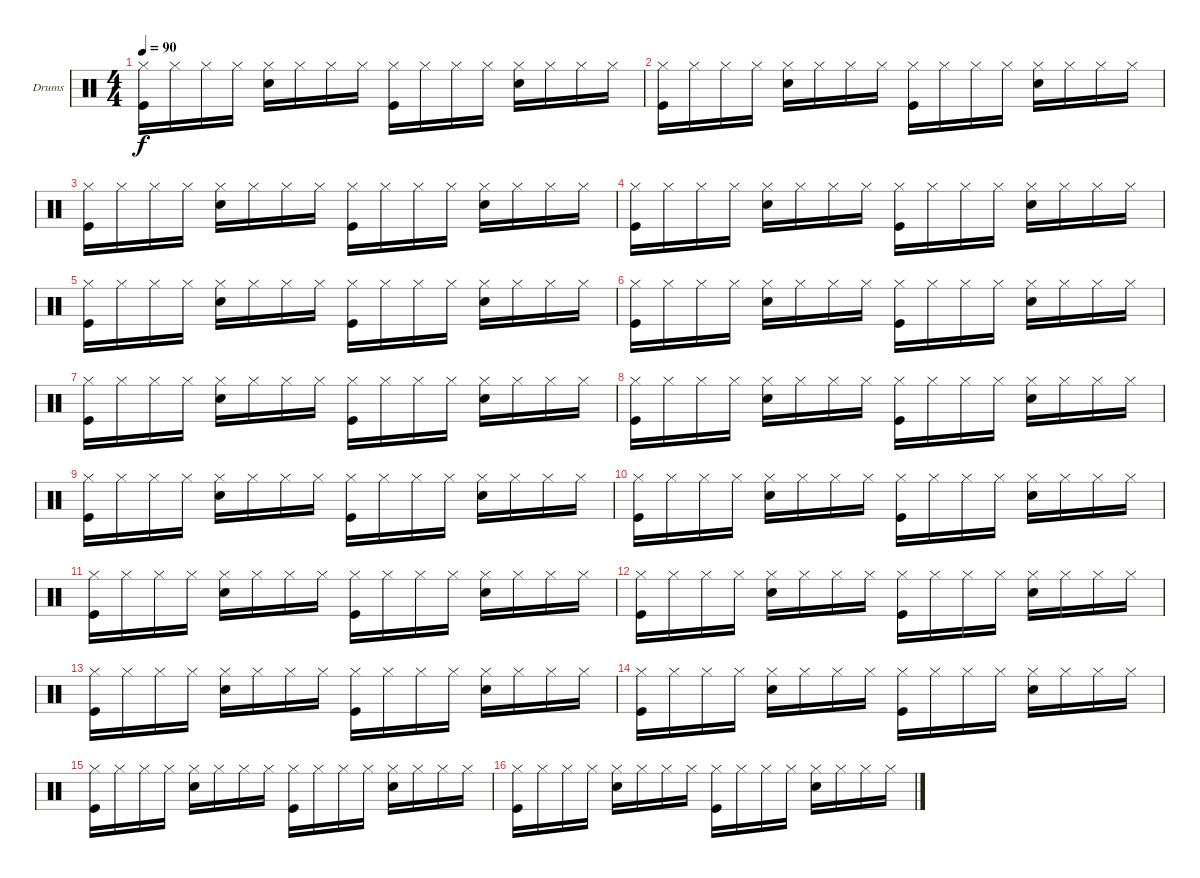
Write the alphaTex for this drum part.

\defaultSystemsLayout 4
\bracketExtendMode groupsimilarinstruments
\firstSystemTrackNameOrientation horizontal
\otherSystemsTrackNameOrientation horizontal
\track ("Drumkit" "Drums") {instrument percussion}
\staff {score}
\articulation defaults
\ts (4 4)
\tempo 90
\clef neutral
\scale
0.333333
\ks c
("Hi-Hat (closed)" "Kick (hit)").16{dy f} "Hi-Hat (closed)".16 "Hi-Hat (closed)".16 "Hi-Hat (closed)".16 ("Snare (hit) 2" "Hi-Hat (closed)").16 "Hi-Hat (closed)".16 "Hi-Hat (closed)".16 "Hi-Hat (closed)".16 ("Kick (hit)" "Hi-Hat (closed)").16 "Hi-Hat (closed)".16 "Hi-Hat (closed)".16 "Hi-Hat (closed)".16 ("Hi-Hat (closed)" "Snare (hit) 2").16 "Hi-Hat (closed)".16 "Hi-Hat (closed)".16 "Hi-Hat (closed)".16 |
\scale
0.333333 ("Kick (hit)" "Hi-Hat (closed)").16 "Hi-Hat (closed)".16 "Hi-Hat (closed)".16 "Hi-Hat (closed)".16 ("Snare (hit) 2" "Hi-Hat (closed)").16 "Hi-Hat (closed)".16 "Hi-Hat (closed)".16 "Hi-Hat (closed)".16 ("Hi-Hat (closed)" "Kick (hit)").16 "Hi-Hat (closed)".16 "Hi-Hat (closed)".16 "Hi-Hat (closed)".16 ("Snare (hit) 2" "Hi-Hat (closed)").16 "Hi-Hat (closed)".16 "Hi-Hat (closed)".16 "Hi-Hat (closed)".16 |
\scale
0.333333 ("Kick (hit)" "Hi-Hat (closed)").16 "Hi-Hat (closed)".16 "Hi-Hat (closed)".16 "Hi-Hat (closed)".16 ("Hi-Hat (closed)" "Snare (hit) 2").16 "Hi-Hat (closed)".16 "Hi-Hat (closed)".16 "Hi-Hat (closed)".16 ("Kick (hit)" "Hi-Hat (closed)").16 "Hi-Hat (closed)".16 "Hi-Hat (closed)".16 "Hi-Hat (closed)".16 ("Snare (hit) 2" "Hi-Hat (closed)").16 "Hi-Hat (closed)".16 "Hi-Hat (closed)".16 "Hi-Hat (closed)".16 |
\scale
0.333333 ("Hi-Hat (closed)" "Kick (hit)").16 "Hi-Hat (closed)".16 "Hi-Hat (closed)".16 "Hi-Hat (closed)".16 ("Snare (hit) 2" "Hi-Hat (closed)").16 "Hi-Hat (closed)".16 "Hi-Hat (closed)".16 "Hi-Hat (closed)".16 ("Kick (hit)" "Hi-Hat (closed)").16 "Hi-Hat (closed)".16 "Hi-Hat (closed)".16 "Hi-Hat (closed)".16 ("Hi-Hat (closed)" "Snare (hit) 2").16 "Hi-Hat (closed)".16 "Hi-Hat (closed)".16 "Hi-Hat (closed)".16 |
\scale
0.333333 ("Kick (hit)" "Hi-Hat (closed)").16 "Hi-Hat (closed)".16 "Hi-Hat (closed)".16 "Hi-Hat (closed)".16 ("Snare (hit) 2" "Hi-Hat (closed)").16 "Hi-Hat (closed)".16 "Hi-Hat (closed)".16 "Hi-Hat (closed)".16 ("Hi-Hat (closed)" "Kick (hit)").16 "Hi-Hat (closed)".16 "Hi-Hat (closed)".16 "Hi-Hat (closed)".16 ("Snare (hit) 2" "Hi-Hat (closed)").16 "Hi-Hat (closed)".16 "Hi-Hat (closed)".16 "Hi-Hat (closed)".16 |
\scale
0.333333 ("Kick (hit)" "Hi-Hat (closed)").16 "Hi-Hat (closed)".16 "Hi-Hat (closed)".16 "Hi-Hat (closed)".16 ("Hi-Hat (closed)" "Snare (hit) 2").16 "Hi-Hat (closed)".16 "Hi-Hat (closed)".16 "Hi-Hat (closed)".16 ("Kick (hit)" "Hi-Hat (closed)").16 "Hi-Hat (closed)".16 "Hi-Hat (closed)".16 "Hi-Hat (closed)".16 ("Snare (hit) 2" "Hi-Hat (closed)").16 "Hi-Hat (closed)".16 "Hi-Hat (closed)".16 "Hi-Hat (closed)".16 |
\scale
0.333333 ("Hi-Hat (closed)" "Kick (hit)").16 "Hi-Hat (closed)".16 "Hi-Hat (closed)".16 "Hi-Hat (closed)".16 ("Snare (hit) 2" "Hi-Hat (closed)").16 "Hi-Hat (closed)".16 "Hi-Hat (closed)".16 "Hi-Hat (closed)".16 ("Kick (hit)" "Hi-Hat (closed)").16 "Hi-Hat (closed)".16 "Hi-Hat (closed)".16 "Hi-Hat (closed)".16 ("Hi-Hat (closed)" "Snare (hit) 2").16 "Hi-Hat (closed)".16 "Hi-Hat (closed)".16 "Hi-Hat (closed)".16 |
\scale
0.333333 ("Kick (hit)" "Hi-Hat (closed)").16 "Hi-Hat (closed)".16 "Hi-Hat (closed)".16 "Hi-Hat (closed)".16 ("Snare (hit) 2" "Hi-Hat (closed)").16 "Hi-Hat (closed)".16 "Hi-Hat (closed)".16 "Hi-Hat (closed)".16 ("Hi-Hat (closed)" "Kick (hit)").16 "Hi-Hat (closed)".16 "Hi-Hat (closed)".16 "Hi-Hat (closed)".16 ("Snare (hit) 2" "Hi-Hat (closed)").16 "Hi-Hat (closed)".16 "Hi-Hat (closed)".16 "Hi-Hat (closed)".16 |
\scale
0.333333 ("Kick (hit)" "Hi-Hat (closed)").16 "Hi-Hat (closed)".16 "Hi-Hat (closed)".16 "Hi-Hat (closed)".16 ("Hi-Hat (closed)" "Snare (hit) 2").16 "Hi-Hat (closed)".16 "Hi-Hat (closed)".16 "Hi-Hat (closed)".16 ("Kick (hit)" "Hi-Hat (closed)").16 "Hi-Hat (closed)".16 "Hi-Hat (closed)".16 "Hi-Hat (closed)".16 ("Snare (hit) 2" "Hi-Hat (closed)").16 "Hi-Hat (closed)".16 "Hi-Hat (closed)".16 "Hi-Hat (closed)".16 |
\scale
0.333333 ("Kick (hit)" "Hi-Hat (closed)").16 "Hi-Hat (closed)".16 "Hi-Hat (closed)".16 "Hi-Hat (closed)".16 ("Hi-Hat (closed)" "Snare (hit) 2").16 "Hi-Hat (closed)".16 "Hi-Hat (closed)".16 "Hi-Hat (closed)".16 ("Kick (hit)" "Hi-Hat (closed)").16 "Hi-Hat (closed)".16 "Hi-Hat (closed)".16 "Hi-Hat (closed)".16 ("Snare (hit) 2" "Hi-Hat (closed)").16 "Hi-Hat (closed)".16 "Hi-Hat (closed)".16 "Hi-Hat (closed)".16 |
\scale
0.333333 ("Hi-Hat (closed)" "Kick (hit)").16 "Hi-Hat (closed)".16 "Hi-Hat (closed)".16 "Hi-Hat (closed)".16 ("Snare (hit) 2" "Hi-Hat (closed)").16 "Hi-Hat (closed)".16 "Hi-Hat (closed)".16 "Hi-Hat (closed)".16 ("Kick (hit)" "Hi-Hat (closed)").16 "Hi-Hat (closed)".16 "Hi-Hat (closed)".16 "Hi-Hat (closed)".16 ("Hi-Hat (closed)" "Snare (hit) 2").16 "Hi-Hat (closed)".16 "Hi-Hat (closed)".16 "Hi-Hat (closed)".16 |
\scale
0.333333 ("Kick (hit)" "Hi-Hat (closed)").16 "Hi-Hat (closed)".16 "Hi-Hat (closed)".16 "Hi-Hat (closed)".16 ("Snare (hit) 2" "Hi-Hat (closed)").16 "Hi-Hat (closed)".16 "Hi-Hat (closed)".16 "Hi-Hat (closed)".16 ("Hi-Hat (closed)" "Kick (hit)").16 "Hi-Hat (closed)".16 "Hi-Hat (closed)".16 "Hi-Hat (closed)".16 ("Snare (hit) 2" "Hi-Hat (closed)").16 "Hi-Hat (closed)".16 "Hi-Hat (closed)".16 "Hi-Hat (closed)".16 |
\scale
0.333333 ("Kick (hit)" "Hi-Hat (closed)").16 "Hi-Hat (closed)".16 "Hi-Hat (closed)".16 "Hi-Hat (closed)".16 ("Hi-Hat (closed)" "Snare (hit) 2").16 "Hi-Hat (closed)".16 "Hi-Hat (closed)".16 "Hi-Hat (closed)".16 ("Kick (hit)" "Hi-Hat (closed)").16 "Hi-Hat (closed)".16 "Hi-Hat (closed)".16 "Hi-Hat (closed)".16 ("Snare (hit) 2" "Hi-Hat (closed)").16 "Hi-Hat (closed)".16 "Hi-Hat (closed)".16 "Hi-Hat (closed)".16 |
\scale
0.333333 ("Kick (hit)" "Hi-Hat (closed)").16 "Hi-Hat (closed)".16 "Hi-Hat (closed)".16 "Hi-Hat (closed)".16 ("Hi-Hat (closed)" "Snare (hit) 2").16 "Hi-Hat (closed)".16 "Hi-Hat (closed)".16 "Hi-Hat (closed)".16 ("Hi-Hat (closed)" "Kick (hit)").16 "Hi-Hat (closed)".16 "Hi-Hat (closed)".16 "Hi-Hat (closed)".16 ("Snare (hit) 2" "Hi-Hat (closed)").16 "Hi-Hat (closed)".16 "Hi-Hat (closed)".16 "Hi-Hat (closed)".16 |
\scale
0.333333 ("Hi-Hat (closed)" "Kick (hit)").16 "Hi-Hat (closed)".16 "Hi-Hat (closed)".16 "Hi-Hat (closed)".16 ("Hi-Hat (closed)" "Snare (hit) 2").16 "Hi-Hat (closed)".16 "Hi-Hat (closed)".16 "Hi-Hat (closed)".16 ("Kick (hit)" "Hi-Hat (closed)").16 "Hi-Hat (closed)".16 "Hi-Hat (closed)".16 "Hi-Hat (closed)".16 ("Hi-Hat (closed)" "Snare (hit) 2").16 "Hi-Hat (closed)".16 "Hi-Hat (closed)".16 "Hi-Hat (closed)".16 |
\scale
0.333333 ("Hi-Hat (closed)" "Kick (hit)").16 "Hi-Hat (closed)".16 "Hi-Hat (closed)".16 "Hi-Hat (closed)".16 ("Snare (hit) 2" "Hi-Hat (closed)").16 "Hi-Hat (closed)".16 "Hi-Hat (closed)".16 "Hi-Hat (closed)".16 ("Hi-Hat (closed)" "Kick (hit)").16 "Hi-Hat (closed)".16 "Hi-Hat (closed)".16 "Hi-Hat (closed)".16 ("Hi-Hat (closed)" "Snare (hit) 2").16 "Hi-Hat (closed)".16 "Hi-Hat (closed)".16 "Hi-Hat (closed)".16
